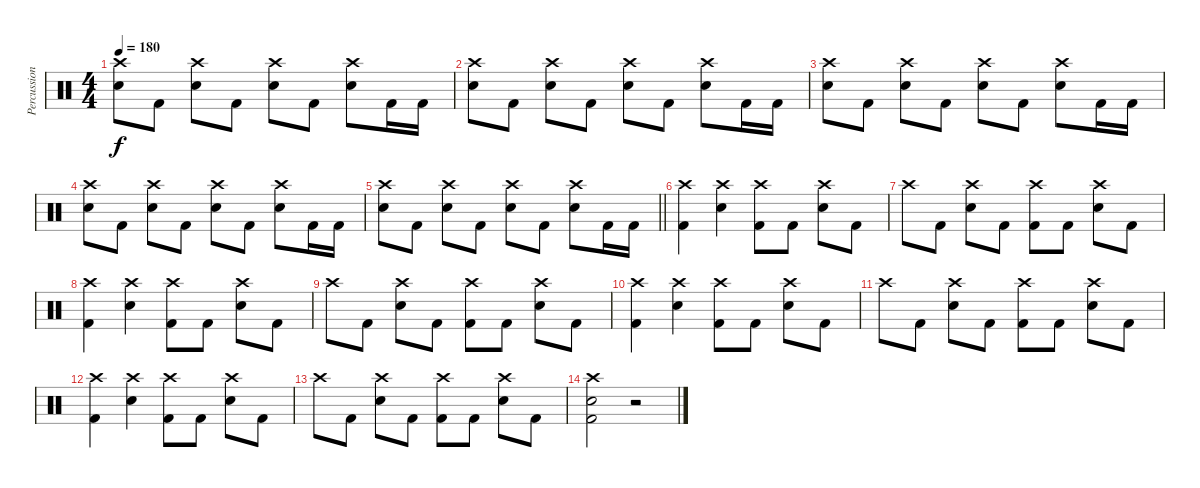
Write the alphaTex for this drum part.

\track ("Percussion" "Percussion") {instrument percussion}
\staff {score}
\articulation defaults
\ts (4 4)
\tempo 180
\clef neutral
\ks c
("Crash high (hit)" "Snare (hit) 2").8{dy f} "Kick (hit) 2".8 ("Crash high (hit)" "Snare (hit) 2").8 "Kick (hit) 2".8 ("Crash high (hit)" "Snare (hit) 2").8 "Kick (hit) 2".8 ("Crash high (hit)" "Snare (hit) 2").8 "Kick (hit) 2".16 "Kick (hit) 2".16 |
("Crash high (hit)" "Snare (hit) 2").8 "Kick (hit) 2".8 ("Crash high (hit)" "Snare (hit) 2").8 "Kick (hit) 2".8 ("Crash high (hit)" "Snare (hit) 2").8 "Kick (hit) 2".8 ("Crash high (hit)" "Snare (hit) 2").8 "Kick (hit) 2".16 "Kick (hit) 2".16 |
("Crash high (hit)" "Snare (hit) 2").8 "Kick (hit) 2".8 ("Crash high (hit)" "Snare (hit) 2").8 "Kick (hit) 2".8 ("Crash high (hit)" "Snare (hit) 2").8 "Kick (hit) 2".8 ("Crash high (hit)" "Snare (hit) 2").8 "Kick (hit) 2".16 "Kick (hit) 2".16 |
("Crash high (hit)" "Snare (hit) 2").8 "Kick (hit) 2".8 ("Crash high (hit)" "Snare (hit) 2").8 "Kick (hit) 2".8 ("Crash high (hit)" "Snare (hit) 2").8 "Kick (hit) 2".8 ("Crash high (hit)" "Snare (hit) 2").8 "Kick (hit) 2".16 "Kick (hit) 2".16 |
\barLineRight lightlight
("Crash high (hit)" "Snare (hit) 2").8 "Kick (hit) 2".8 ("Crash high (hit)" "Snare (hit) 2").8 "Kick (hit) 2".8 ("Crash high (hit)" "Snare (hit) 2").8 "Kick (hit) 2".8 ("Crash high (hit)" "Snare (hit) 2").8 "Kick (hit) 2".16 "Kick (hit) 2".16 |
("Crash high (hit)" "Kick (hit) 2").4 ("Crash high (hit)" "Snare (hit) 2").4 ("Crash high (hit)" "Kick (hit) 2").8 "Kick (hit) 2".8 ("Crash high (hit)" "Snare (hit) 2").8 "Kick (hit) 2".8 |
"Crash high (hit)".8 "Kick (hit) 2".8 ("Crash high (hit)" "Snare (hit) 2").8 "Kick (hit) 2".8 ("Crash high (hit)" "Kick (hit) 2").8 "Kick (hit) 2".8 ("Crash high (hit)" "Snare (hit) 2").8 "Kick (hit) 2".8 |
("Crash high (hit)" "Kick (hit) 2").4 ("Crash high (hit)" "Snare (hit) 2").4 ("Crash high (hit)" "Kick (hit) 2").8 "Kick (hit) 2".8 ("Crash high (hit)" "Snare (hit) 2").8 "Kick (hit) 2".8 |
"Crash high (hit)".8 "Kick (hit) 2".8 ("Crash high (hit)" "Snare (hit) 2").8 "Kick (hit) 2".8 ("Crash high (hit)" "Kick (hit) 2").8 "Kick (hit) 2".8 ("Crash high (hit)" "Snare (hit) 2").8 "Kick (hit) 2".8 |
("Crash high (hit)" "Kick (hit) 2").4 ("Crash high (hit)" "Snare (hit) 2").4 ("Crash high (hit)" "Kick (hit) 2").8 "Kick (hit) 2".8 ("Crash high (hit)" "Snare (hit) 2").8 "Kick (hit) 2".8 |
"Crash high (hit)".8 "Kick (hit) 2".8 ("Crash high (hit)" "Snare (hit) 2").8 "Kick (hit) 2".8 ("Crash high (hit)" "Kick (hit) 2").8 "Kick (hit) 2".8 ("Crash high (hit)" "Snare (hit) 2").8 "Kick (hit) 2".8 |
("Crash high (hit)" "Kick (hit) 2").4 ("Crash high (hit)" "Snare (hit) 2").4 ("Crash high (hit)" "Kick (hit) 2").8 "Kick (hit) 2".8 ("Crash high (hit)" "Snare (hit) 2").8 "Kick (hit) 2".8 |
"Crash high (hit)".8 "Kick (hit) 2".8 ("Crash high (hit)" "Snare (hit) 2").8 "Kick (hit) 2".8 ("Crash high (hit)" "Kick (hit) 2").8 "Kick (hit) 2".8 ("Crash high (hit)" "Snare (hit) 2").8 "Kick (hit) 2".8 |
("Crash high (hit)" "Snare (hit) 2" "Kick (hit) 2").2 r.2
